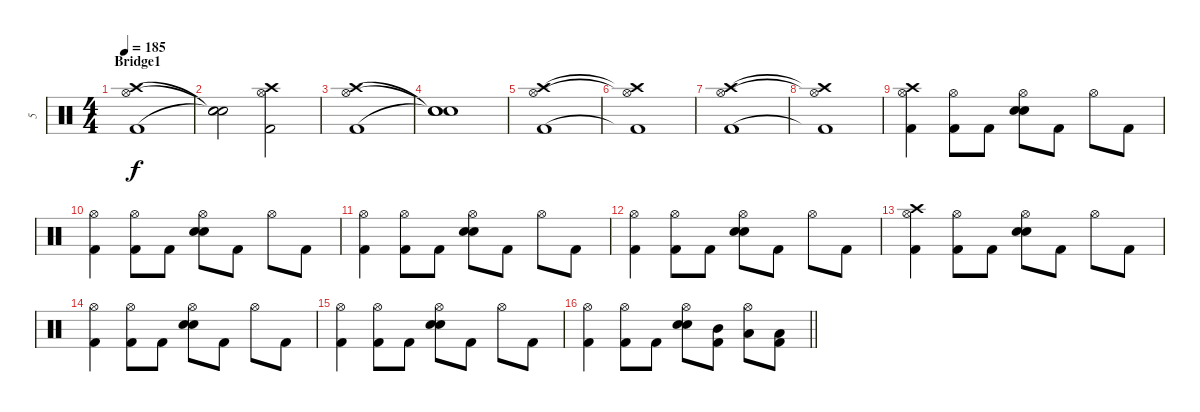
\track ("5" "5") {instrument percussion}
\staff {score}
\articulation defaults
\ts (4 4)
\section ("" "Bridge1")
\tempo 185
\clef neutral
\ks c
("Crash high (hit)" "Hi-Hat (open)" "Kick (hit) 2").1{dy f} |
("Snare (hit)"{t} "Snare (hit)"{t} "Snare (hit)"{t}).2 ("Crash high (hit)" "Hi-Hat (open)" "Kick (hit) 2").2 |
("Crash high (hit)" "Hi-Hat (open)" "Kick (hit) 2").1 |
("Snare (hit)"{t} "Snare (hit)"{t} "Snare (hit)"{t}).1 |
("Crash high (hit)" "Hi-Hat (open)" "Kick (hit) 2").1 |
("Crash high (hit)"{t} "Hi-Hat (open)"{t} "Kick (hit) 2"{t}).1 |
("Crash high (hit)" "Hi-Hat (open)" "Kick (hit) 2").1 |
("Crash high (hit)"{t} "Hi-Hat (open)"{t} "Kick (hit) 2"{t}).1 |
("Crash high (hit)" "Hi-Hat (open)" "Kick (hit) 2").4 ("Hi-Hat (open)" "Kick (hit) 2").8 "Kick (hit) 2".8 ("Hi-Hat (open)" "Electric Snare (hit)" "Snare (hit) 2").8 "Kick (hit) 2".8 "Hi-Hat (open)".8 "Kick (hit) 2".8 |
("Hi-Hat (open)" "Kick (hit) 2").4 ("Hi-Hat (open)" "Kick (hit) 2").8 "Kick (hit) 2".8 ("Hi-Hat (open)" "Electric Snare (hit)" "Snare (hit) 2").8 "Kick (hit) 2".8 "Hi-Hat (open)".8 "Kick (hit) 2".8 |
("Hi-Hat (open)" "Kick (hit) 2").4 ("Hi-Hat (open)" "Kick (hit) 2").8 "Kick (hit) 2".8 ("Hi-Hat (open)" "Electric Snare (hit)" "Snare (hit) 2").8 "Kick (hit) 2".8 "Hi-Hat (open)".8 "Kick (hit) 2".8 |
("Hi-Hat (open)" "Kick (hit) 2").4 ("Hi-Hat (open)" "Kick (hit) 2").8 "Kick (hit) 2".8 ("Hi-Hat (open)" "Electric Snare (hit)" "Snare (hit) 2").8 "Kick (hit) 2".8 "Hi-Hat (open)".8 "Kick (hit) 2".8 |
("Crash high (hit)" "Hi-Hat (open)" "Kick (hit) 2").4 ("Hi-Hat (open)" "Kick (hit) 2").8 "Kick (hit) 2".8 ("Hi-Hat (open)" "Electric Snare (hit)" "Snare (hit) 2").8 "Kick (hit) 2".8 "Hi-Hat (open)".8 "Kick (hit) 2".8 |
("Hi-Hat (open)" "Kick (hit) 2").4 ("Hi-Hat (open)" "Kick (hit) 2").8 "Kick (hit) 2".8 ("Hi-Hat (open)" "Electric Snare (hit)" "Snare (hit) 2").8 "Kick (hit) 2".8 "Hi-Hat (open)".8 "Kick (hit) 2".8 |
("Hi-Hat (open)" "Kick (hit) 2").4 ("Hi-Hat (open)" "Kick (hit) 2").8 "Kick (hit) 2".8 ("Hi-Hat (open)" "Electric Snare (hit)" "Snare (hit) 2").8 "Kick (hit) 2".8 "Hi-Hat (open)".8 "Kick (hit) 2".8 |
\barLineRight lightlight
("Hi-Hat (open)" "Kick (hit) 2").4 ("Hi-Hat (open)" "Kick (hit) 2").8 "Kick (hit) 2".8 ("Hi-Hat (open)" "Electric Snare (hit)" "Snare (hit) 2").8 ("Mid Tom (hit)" "Kick (hit) 2").8 ("Hi-Hat (open)" "Low Tom (hit)").8 ("Low Floor Tom (hit)" "Kick (hit) 2").8
